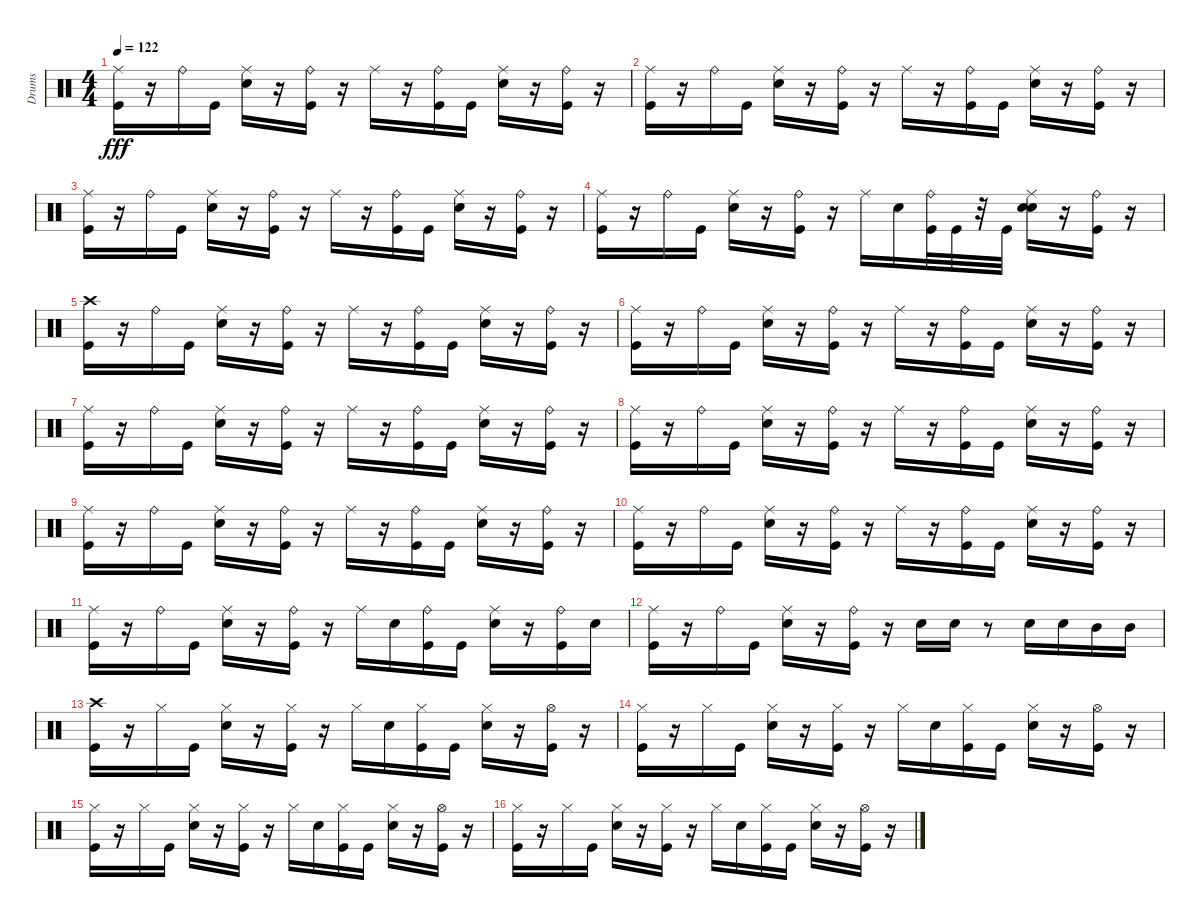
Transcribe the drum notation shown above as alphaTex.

\track ("Drums" "Drums") {instrument percussion}
\staff {score}
\articulation defaults
\ts (4 4)
\tempo 122
\clef neutral
\ks c
("Ride (middle)" "Kick (hit)").16{dy fff} r.16 "Ride (bell)".16 "Kick (hit)".16 ("Ride (middle)" "Snare (hit) 2").16 r.16 ("Ride (bell)" "Kick (hit)").16 r.16 "Ride (middle)".16 r.16 ("Ride (bell)" "Kick (hit)").16 "Kick (hit)".16 ("Ride (middle)" "Snare (hit) 2").16 r.16 ("Ride (bell)" "Kick (hit)").16 r.16 |
("Ride (middle)" "Kick (hit)").16 r.16 "Ride (bell)".16 "Kick (hit)".16 ("Ride (middle)" "Snare (hit) 2").16 r.16 ("Ride (bell)" "Kick (hit)").16 r.16 "Ride (middle)".16 r.16 ("Ride (bell)" "Kick (hit)").16 "Kick (hit)".16 ("Ride (middle)" "Snare (hit) 2").16 r.16 ("Ride (bell)" "Kick (hit)").16 r.16 |
("Ride (middle)" "Kick (hit)").16 r.16 "Ride (bell)".16 "Kick (hit)".16 ("Ride (middle)" "Snare (hit) 2").16 r.16 ("Ride (bell)" "Kick (hit)").16 r.16 "Ride (middle)".16 r.16 ("Ride (bell)" "Kick (hit)").16 "Kick (hit)".16 ("Ride (middle)" "Snare (hit) 2").16 r.16 ("Ride (bell)" "Kick (hit)").16 r.16 |
("Kick (hit)" "Ride (middle)").16 r.16 "Ride (bell)".16 "Kick (hit)".16 ("Snare (hit) 2" "Ride (middle)").16 r.16 ("Kick (hit)" "Ride (bell)").16 r.16 "Ride (middle)".16 "Snare (hit) 2".16 ("Kick (hit)" "Ride (bell)").32 "Kick (hit)".32 r.32 "Kick (hit)".32 ("Snare (hit) 2" "Electric Snare (hit)" "Ride (middle)").16 r.16 ("Kick (hit)" "Ride (bell)").16 r.16 |
("Crash high (hit)" "Kick (hit)").16 r.16 "Ride (bell)".16 "Kick (hit)".16 ("Ride (middle)" "Snare (hit) 2").16 r.16 ("Ride (bell)" "Kick (hit)").16 r.16 "Ride (middle)".16 r.16 ("Ride (bell)" "Kick (hit)").16 "Kick (hit)".16 ("Ride (middle)" "Snare (hit) 2").16 r.16 ("Ride (bell)" "Kick (hit)").16 r.16 |
("Ride (middle)" "Kick (hit)").16 r.16 "Ride (bell)".16 "Kick (hit)".16 ("Ride (middle)" "Snare (hit) 2").16 r.16 ("Ride (bell)" "Kick (hit)").16 r.16 "Ride (middle)".16 r.16 ("Ride (bell)" "Kick (hit)").16 "Kick (hit)".16 ("Ride (middle)" "Snare (hit) 2").16 r.16 ("Ride (bell)" "Kick (hit)").16 r.16 |
("Ride (middle)" "Kick (hit)").16 r.16 "Ride (bell)".16 "Kick (hit)".16 ("Ride (middle)" "Snare (hit) 2").16 r.16 ("Ride (bell)" "Kick (hit)").16 r.16 "Ride (middle)".16 r.16 ("Ride (bell)" "Kick (hit)").16 "Kick (hit)".16 ("Ride (middle)" "Snare (hit) 2").16 r.16 ("Ride (bell)" "Kick (hit)").16 r.16 |
("Ride (middle)" "Kick (hit)").16 r.16 "Ride (bell)".16 "Kick (hit)".16 ("Ride (middle)" "Snare (hit) 2").16 r.16 ("Ride (bell)" "Kick (hit)").16 r.16 "Ride (middle)".16 r.16 ("Ride (bell)" "Kick (hit)").16 "Kick (hit)".16 ("Ride (middle)" "Snare (hit) 2").16 r.16 ("Ride (bell)" "Kick (hit)").16 r.16 |
("Ride (middle)" "Kick (hit)").16 r.16 "Ride (bell)".16 "Kick (hit)".16 ("Ride (middle)" "Snare (hit) 2").16 r.16 ("Ride (bell)" "Kick (hit)").16 r.16 "Ride (middle)".16 r.16 ("Ride (bell)" "Kick (hit)").16 "Kick (hit)".16 ("Ride (middle)" "Snare (hit) 2").16 r.16 ("Ride (bell)" "Kick (hit)").16 r.16 |
("Ride (middle)" "Kick (hit)").16 r.16 "Ride (bell)".16 "Kick (hit)".16 ("Ride (middle)" "Snare (hit) 2").16 r.16 ("Ride (bell)" "Kick (hit)").16 r.16 "Ride (middle)".16 r.16 ("Ride (bell)" "Kick (hit)").16 "Kick (hit)".16 ("Ride (middle)" "Snare (hit) 2").16 r.16 ("Ride (bell)" "Kick (hit)").16 r.16 |
("Kick (hit)" "Ride (middle)").16 r.16 "Ride (bell)".16 "Kick (hit)".16 ("Snare (hit) 2" "Ride (middle)").16 r.16 ("Kick (hit)" "Ride (bell)").16 r.16 "Ride (middle)".16 "Snare (hit) 2".16 ("Kick (hit)" "Ride (bell)").16 "Kick (hit)".16 ("Snare (hit) 2" "Ride (middle)").16 r.16 ("Kick (hit)" "Ride (bell)").16 "Snare (hit) 2".16 |
("Ride (middle)" "Kick (hit)").16 r.16 "Ride (bell)".16 "Kick (hit)".16 ("Ride (middle)" "Snare (hit) 2").16 r.16 ("Ride (bell)" "Kick (hit)").16 r.16 "Snare (hit) 2".16 "Snare (hit) 2".16 r.8 "Snare (hit) 2".16 "Snare (hit) 2".16 "Mid Tom (hit)".16 "Mid Tom (hit)".16 |
("Crash high (hit)" "Kick (hit)").16 r.16 "Hi-Hat (closed)".16 "Kick (hit)".16 ("Snare (hit) 2" "Hi-Hat (closed)").16 r.16 ("Kick (hit)" "Hi-Hat (closed)").16 r.16 "Hi-Hat (closed)".16 "Snare (hit) 2".16 ("Kick (hit)" "Hi-Hat (closed)").16 "Kick (hit)".16 ("Snare (hit) 2" "Hi-Hat (closed)").16 r.16 ("Kick (hit)" "Hi-Hat (open)").16 r.16 |
("Kick (hit)" "Hi-Hat (closed)").16 r.16 "Hi-Hat (closed)".16 "Kick (hit)".16 ("Snare (hit) 2" "Hi-Hat (closed)").16 r.16 ("Kick (hit)" "Hi-Hat (closed)").16 r.16 "Hi-Hat (closed)".16 "Snare (hit) 2".16 ("Kick (hit)" "Hi-Hat (closed)").16 "Kick (hit)".16 ("Snare (hit) 2" "Hi-Hat (closed)").16 r.16 ("Kick (hit)" "Hi-Hat (open)").16 r.16 |
("Kick (hit)" "Hi-Hat (closed)").16 r.16 "Hi-Hat (closed)".16 "Kick (hit)".16 ("Snare (hit) 2" "Hi-Hat (closed)").16 r.16 ("Kick (hit)" "Hi-Hat (closed)").16 r.16 "Hi-Hat (closed)".16 "Snare (hit) 2".16 ("Kick (hit)" "Hi-Hat (closed)").16 "Kick (hit)".16 ("Snare (hit) 2" "Hi-Hat (closed)").16 r.16 ("Kick (hit)" "Hi-Hat (open)").16 r.16 |
("Kick (hit)" "Hi-Hat (closed)").16 r.16 "Hi-Hat (closed)".16 "Kick (hit)".16 ("Snare (hit) 2" "Hi-Hat (closed)").16 r.16 ("Kick (hit)" "Hi-Hat (closed)").16 r.16 "Hi-Hat (closed)".16 "Snare (hit) 2".16 ("Kick (hit)" "Hi-Hat (closed)").16 "Kick (hit)".16 ("Snare (hit) 2" "Hi-Hat (closed)").16 r.16 ("Kick (hit)" "Hi-Hat (open)").16 r.16
